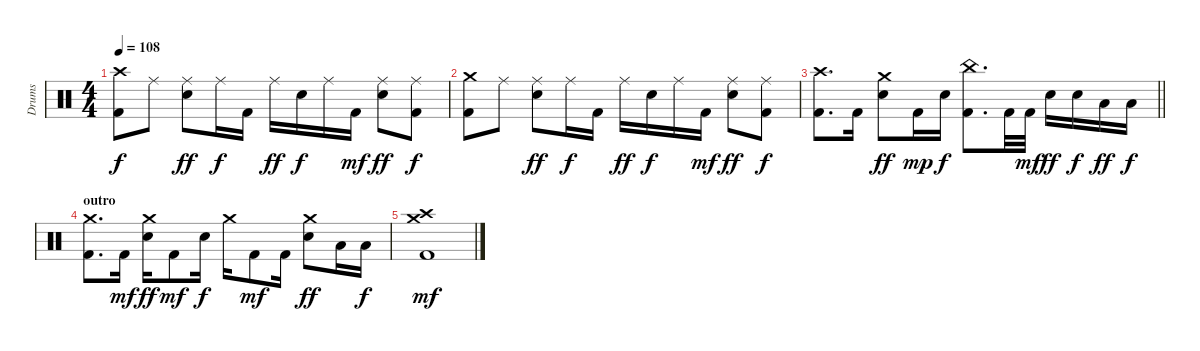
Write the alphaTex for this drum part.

\track ("Drums" "Drums") {instrument percussion}
\staff {score}
\articulation defaults
\ts (4 4)
\tempo 108
\clef neutral
\ks c
("Crash high (hit)" "Kick (hit) 2").8{dy f} "Ride (middle)".8 ("Ride (middle)" "Electric Snare (hit)").8{dy ff} "Ride (middle)".16{dy f} "Kick (hit) 2".16 "Ride (middle)".16{dy ff} "Electric Snare (hit)".16{dy f} "Ride (middle)".16 "Kick (hit) 2".16{dy mf} ("Ride (middle)" "Electric Snare (hit)").8{dy ff} ("Ride (middle)" "Kick (hit) 2").8{dy f} |
("Crash medium (hit)" "Kick (hit) 2").8 "Ride (middle)".8 ("Ride (middle)" "Electric Snare (hit)").8{dy ff} "Ride (middle)".16{dy f} "Kick (hit) 2".16 "Ride (middle)".16{dy ff} "Electric Snare (hit)".16{dy f} "Ride (middle)".16 "Kick (hit) 2".16{dy mf} ("Ride (middle)" "Electric Snare (hit)").8{dy ff} ("Ride (middle)" "Kick (hit) 2").8{dy f} |
\barLineRight lightlight
("Crash high (hit)" "Kick (hit) 2").8{d} "Kick (hit) 2".16 ("Crash medium (hit)" "Electric Snare (hit)").8{dy ff} "Kick (hit) 2".16{dy mp} "Electric Snare (hit)".16{dy f} ("China (hit)" "Kick (hit) 2").8{d} "Kick (hit) 2".32 "Kick (hit) 2".32{dy mf} "Electric Snare (hit)".16{dy ff} "Electric Snare (hit)".16{dy f} "Low Tom (hit)".16{dy ff} "Low Tom (hit)".16{dy f} |
\section ("" "outro")
("Crash medium (hit)" "Kick (hit) 2").8{d} "Kick (hit) 2".16{dy mf} ("Crash medium (hit)" "Electric Snare (hit)").16{dy ff} "Kick (hit) 2".8{dy mf} "Electric Snare (hit)".16{dy f} "Crash medium (hit)".16 "Kick (hit) 2".8{dy mf} "Kick (hit) 2".16 ("Crash medium (hit)" "Electric Snare (hit)").8{dy ff} "Low Tom (hit)".16 "Low Tom (hit)".16{dy f} |
("Crash medium (hit)" "Crash high (hit)" "Kick (hit) 2").1{dy mf}
